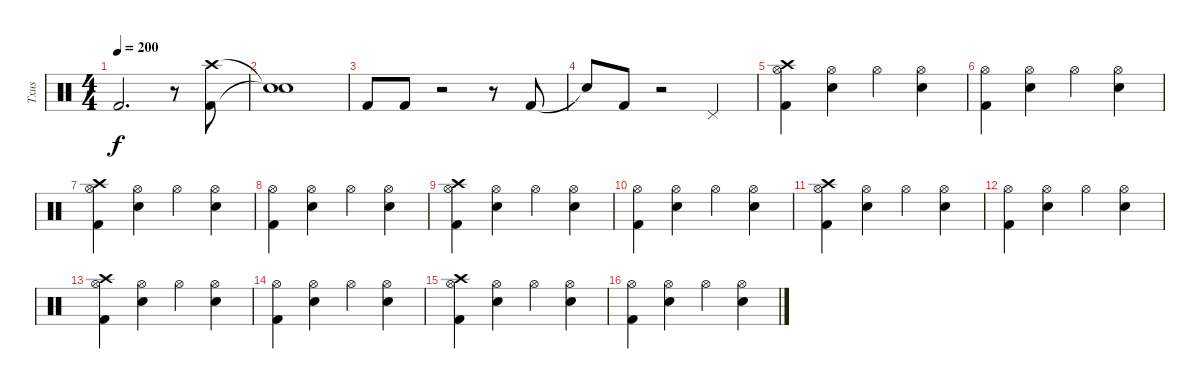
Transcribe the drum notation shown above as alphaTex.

\track ("Txus" "Txus") {instrument percussion}
\staff
\articulation defaults
\ts (4 4)
\tempo 200
\clef neutral
\ks c "Kick (hit) 2".2{d dy f}
r.8 ("Kick (hit) 2" "Crash high (hit)").8 |
("Snare (hit)"{t} "Snare (hit)"{t}).1 |
"Kick (hit) 2".8 "Kick (hit) 2".8 r.2 r.8 "Kick (hit) 2".8 |
"Snare (hit)"{t}.8 "Kick (hit) 2".8 r.2 "Pedal Hi-Hat (hit)".4 |
("Kick (hit) 2" "Crash high (hit)" "Hi-Hat (open)").4 ("Electric Snare (hit)" "Hi-Hat (open)").4 "Hi-Hat (open)".4 ("Electric Snare (hit)" "Hi-Hat (open)").4 |
("Kick (hit) 2" "Hi-Hat (open)").4 ("Electric Snare (hit)" "Hi-Hat (open)").4 "Hi-Hat (open)".4 ("Electric Snare (hit)" "Hi-Hat (open)").4 |
("Kick (hit) 2" "Crash high (hit)" "Hi-Hat (open)").4 ("Electric Snare (hit)" "Hi-Hat (open)").4 "Hi-Hat (open)".4 ("Electric Snare (hit)" "Hi-Hat (open)").4 |
("Kick (hit) 2" "Hi-Hat (open)").4 ("Electric Snare (hit)" "Hi-Hat (open)").4 "Hi-Hat (open)".4 ("Electric Snare (hit)" "Hi-Hat (open)").4 |
("Kick (hit) 2" "Crash high (hit)" "Hi-Hat (open)").4 ("Electric Snare (hit)" "Hi-Hat (open)").4 "Hi-Hat (open)".4 ("Electric Snare (hit)" "Hi-Hat (open)").4 |
("Kick (hit) 2" "Hi-Hat (open)").4 ("Electric Snare (hit)" "Hi-Hat (open)").4 "Hi-Hat (open)".4 ("Electric Snare (hit)" "Hi-Hat (open)").4 |
("Kick (hit) 2" "Crash high (hit)" "Hi-Hat (open)").4 ("Electric Snare (hit)" "Hi-Hat (open)").4 "Hi-Hat (open)".4 ("Electric Snare (hit)" "Hi-Hat (open)").4 |
("Kick (hit) 2" "Hi-Hat (open)").4 ("Electric Snare (hit)" "Hi-Hat (open)").4 "Hi-Hat (open)".4 ("Electric Snare (hit)" "Hi-Hat (open)").4 |
("Kick (hit) 2" "Crash high (hit)" "Hi-Hat (open)").4 ("Electric Snare (hit)" "Hi-Hat (open)").4 "Hi-Hat (open)".4 ("Electric Snare (hit)" "Hi-Hat (open)").4 |
("Kick (hit) 2" "Hi-Hat (open)").4 ("Electric Snare (hit)" "Hi-Hat (open)").4 "Hi-Hat (open)".4 ("Electric Snare (hit)" "Hi-Hat (open)").4 |
("Kick (hit) 2" "Crash high (hit)" "Hi-Hat (open)").4 ("Electric Snare (hit)" "Hi-Hat (open)").4 "Hi-Hat (open)".4 ("Electric Snare (hit)" "Hi-Hat (open)").4 |
("Kick (hit) 2" "Hi-Hat (open)").4 ("Electric Snare (hit)" "Hi-Hat (open)").4 "Hi-Hat (open)".4 ("Electric Snare (hit)" "Hi-Hat (open)").4
